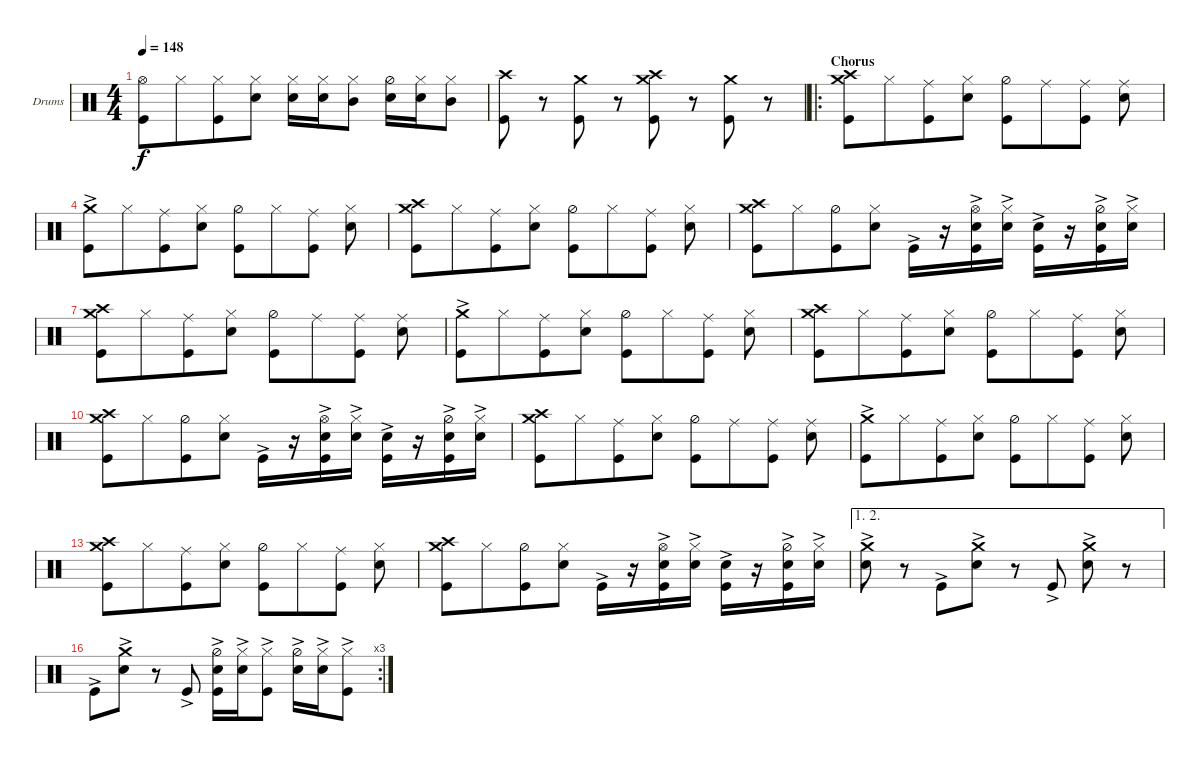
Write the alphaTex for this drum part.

\defaultSystemsLayout 4
\bracketExtendMode nobrackets
\firstSystemTrackNameOrientation horizontal
\otherSystemsTrackNameOrientation horizontal
\defaultBarNumberDisplay FirstOfSystem
\track ("Drum" "Drums") {instrument percussion}
\staff {score}
\articulation defaults
\ts (4 4)
\tempo 148
\clef neutral
\ks c
("Kick (hit)" "Hi-Hat (open)").8{dy f} "Hi-Hat (closed)".8{beam merge} ("Kick (hit)" "Hi-Hat (closed)").8 ("Snare (hit) 2" "Hi-Hat (closed)").8 ("Snare (hit) 2" "Hi-Hat (closed)").16 ("Hi-Hat (closed)" "Snare (hit) 2").16 ("Hi-Hat (closed)" "Mid Tom (hit)").8 ("Snare (hit) 2" "Hi-Hat (half)").16 ("Hi-Hat (closed)" "Snare (hit) 2").16 ("Hi-Hat (closed)" "Mid Tom (hit)").8 |
("Crash high (hit)" "Kick (hit)").8 r.8 ("Kick (hit)" "Crash medium (hit)").8 r.8 ("Kick (hit)" "Crash medium (hit)" "Crash high (hit)").8 r.8 ("Kick (hit)" "Crash medium (hit)").8 r.8 |
\ro
\section ("" "Chorus")
\scale
0.247482 ("Kick (hit)" "Crash medium (hit)" "Crash high (hit)").8 "Hi-Hat (closed)".8{beam merge} ("Kick (hit)" "Ride (middle)").8 ("Snare (hit) 2" "Hi-Hat (closed)").8 ("Hi-Hat (half)" "Kick (hit)").8 "Ride (middle)".8{beam merge} ("Kick (hit)" "Ride (middle)").8{beam split} ("Snare (hit) 2" "Ride (middle)").8 |
\scale
0.230216 ("Kick (hit)" "Crash medium (hit)"{ac}).8 "Hi-Hat (closed)".8{beam merge} ("Kick (hit)" "Ride (middle)").8 ("Snare (hit) 2" "Hi-Hat (closed)").8 ("Hi-Hat (half)" "Kick (hit)").8 "Hi-Hat (closed)".8{beam merge} ("Kick (hit)" "Ride (middle)").8{beam split} ("Snare (hit) 2" "Hi-Hat (closed)").8 |
\scale
0.230216 ("Kick (hit)" "Crash high (hit)" "Crash medium (hit)").8 "Hi-Hat (closed)".8{beam merge} ("Kick (hit)" "Ride (middle)").8 ("Snare (hit) 2" "Hi-Hat (closed)").8 ("Hi-Hat (half)" "Kick (hit)").8 "Hi-Hat (closed)".8{beam merge} ("Kick (hit)" "Ride (middle)").8{beam split} ("Snare (hit) 2" "Hi-Hat (closed)").8 |
\scale
0.292086 ("Kick (hit)" "Crash high (hit)" "Crash medium (hit)").8 "Hi-Hat (closed)".8{beam merge} ("Kick (hit)" "Hi-Hat (half)").8 ("Snare (hit) 2" "Hi-Hat (closed)").8 "Kick (hit)"{ac}.16 r.16 ("Snare (hit) 2"{ac} "Kick (hit)"{ac} "Hi-Hat (open)").16 ("Snare (hit) 2"{ac} "Hi-Hat (closed)").16 ("Snare (hit) 2" "Kick (hit)"{ac}).16 r.16 ("Kick (hit)"{ac} "Snare (hit) 2"{ac} "Hi-Hat (half)").16 ("Snare (hit) 2"{ac} "Hi-Hat (closed)").16 |
("Kick (hit)" "Crash medium (hit)" "Crash high (hit)").8 "Hi-Hat (closed)".8{beam merge} ("Kick (hit)" "Ride (middle)").8 ("Snare (hit) 2" "Hi-Hat (closed)").8 ("Hi-Hat (half)" "Kick (hit)").8 "Ride (middle)".8{beam merge} ("Kick (hit)" "Ride (middle)").8{beam split} ("Snare (hit) 2" "Ride (middle)").8 |
("Kick (hit)" "Crash medium (hit)"{ac}).8 "Hi-Hat (closed)".8{beam merge} ("Kick (hit)" "Ride (middle)").8 ("Snare (hit) 2" "Hi-Hat (closed)").8 ("Hi-Hat (half)" "Kick (hit)").8 "Hi-Hat (closed)".8{beam merge} ("Kick (hit)" "Ride (middle)").8{beam split} ("Snare (hit) 2" "Hi-Hat (closed)").8 |
("Kick (hit)" "Crash high (hit)" "Crash medium (hit)").8 "Hi-Hat (closed)".8{beam merge} ("Kick (hit)" "Ride (middle)").8 ("Snare (hit) 2" "Hi-Hat (closed)").8 ("Hi-Hat (half)" "Kick (hit)").8 "Hi-Hat (closed)".8{beam merge} ("Kick (hit)" "Ride (middle)").8{beam split} ("Snare (hit) 2" "Hi-Hat (closed)").8 |
("Kick (hit)" "Crash high (hit)" "Crash medium (hit)").8 "Hi-Hat (closed)".8{beam merge} ("Kick (hit)" "Hi-Hat (half)").8 ("Snare (hit) 2" "Hi-Hat (closed)").8 "Kick (hit)"{ac}.16 r.16 ("Snare (hit) 2"{ac} "Kick (hit)"{ac} "Hi-Hat (open)").16 ("Snare (hit) 2"{ac} "Hi-Hat (closed)").16 ("Snare (hit) 2" "Kick (hit)"{ac}).16 r.16 ("Kick (hit)"{ac} "Snare (hit) 2"{ac} "Hi-Hat (half)").16 ("Snare (hit) 2"{ac} "Hi-Hat (closed)").16 |
("Kick (hit)" "Crash medium (hit)" "Crash high (hit)").8 "Hi-Hat (closed)".8{beam merge} ("Kick (hit)" "Ride (middle)").8 ("Snare (hit) 2" "Hi-Hat (closed)").8 ("Hi-Hat (half)" "Kick (hit)").8 "Ride (middle)".8{beam merge} ("Kick (hit)" "Ride (middle)").8{beam split} ("Snare (hit) 2" "Ride (middle)").8 |
("Kick (hit)" "Crash medium (hit)"{ac}).8 "Hi-Hat (closed)".8{beam merge} ("Kick (hit)" "Ride (middle)").8 ("Snare (hit) 2" "Hi-Hat (closed)").8 ("Hi-Hat (half)" "Kick (hit)").8 "Hi-Hat (closed)".8{beam merge} ("Kick (hit)" "Ride (middle)").8{beam split} ("Snare (hit) 2" "Hi-Hat (closed)").8 |
("Kick (hit)" "Crash high (hit)" "Crash medium (hit)").8 "Hi-Hat (closed)".8{beam merge} ("Kick (hit)" "Ride (middle)").8 ("Snare (hit) 2" "Hi-Hat (closed)").8 ("Hi-Hat (half)" "Kick (hit)").8 "Hi-Hat (closed)".8{beam merge} ("Kick (hit)" "Ride (middle)").8{beam split} ("Snare (hit) 2" "Hi-Hat (closed)").8 |
("Kick (hit)" "Crash high (hit)" "Crash medium (hit)").8 "Hi-Hat (closed)".8{beam merge} ("Kick (hit)" "Hi-Hat (half)").8 ("Snare (hit) 2" "Hi-Hat (closed)").8 "Kick (hit)"{ac}.16 r.16 ("Snare (hit) 2"{ac} "Kick (hit)"{ac} "Hi-Hat (open)").16 ("Snare (hit) 2"{ac} "Hi-Hat (closed)").16 ("Snare (hit) 2" "Kick (hit)"{ac}).16 r.16 ("Kick (hit)"{ac} "Snare (hit) 2"{ac} "Hi-Hat (half)").16 ("Snare (hit) 2"{ac} "Hi-Hat (closed)").16 |
\ae (1 2)
("Crash medium (hit)" "Snare (hit) 2"{ac}).8 r.8 "Kick (hit)"{ac}.8 ("Crash medium (hit)" "Snare (hit) 2"{ac}).8 r.8 "Kick (hit)"{ac}.8 ("Crash medium (hit)" "Snare (hit) 2"{ac}).8 r.8 |
\rc 3 "Kick (hit)"{ac}.8
("Crash medium (hit)" "Snare (hit) 2"{ac}).8 r.8 "Kick (hit)"{ac}.8 ("Snare (hit) 2"{ac} "Hi-Hat (half)" "Kick (hit)"{ac}).16 ("Snare (hit) 2"{ac} "Hi-Hat (closed)").16 ("Hi-Hat (closed)" "Kick (hit)"{ac}).8 ("Snare (hit) 2"{ac} "Hi-Hat (half)").16 ("Snare (hit) 2"{ac} "Hi-Hat (closed)").16 ("Hi-Hat (closed)" "Kick (hit)"{ac}).8
